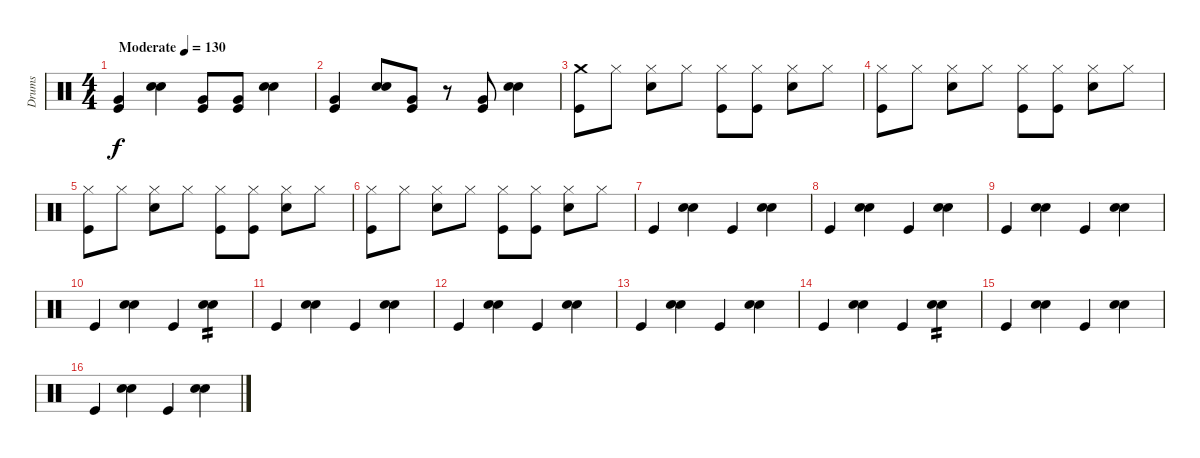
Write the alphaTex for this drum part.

\track ("Drums" "Drums") {instrument percussion}
\staff {score}
\articulation defaults
\ts (4 4)
\tempo (130 "Moderate")
\clef neutral
\ks c
("Kick (hit)" "Very Low Tom (hit)").4{dy f} ("Snare (hit) 2" "Hand Clap (hit)").4 ("Kick (hit)" "Very Low Tom (hit)").8 ("Kick (hit)" "Very Low Tom (hit)").8 ("Snare (hit) 2" "Hand Clap (hit)").4 |
("Kick (hit)" "Very Low Tom (hit)").4 ("Snare (hit) 2" "Hand Clap (hit)").8 ("Kick (hit)" "Very Low Tom (hit)").8 r.8 ("Kick (hit)" "Very Low Tom (hit)").8 ("Snare (hit) 2" "Hand Clap (hit)").4 |
("Crash medium (hit)" "Kick (hit)").8 "Hi-Hat (closed)".8 ("Hi-Hat (closed)" "Snare (hit) 2").8 "Hi-Hat (closed)".8 ("Hi-Hat (closed)" "Kick (hit)").8 ("Hi-Hat (closed)" "Kick (hit)").8 ("Hi-Hat (closed)" "Snare (hit) 2").8 "Hi-Hat (closed)".8 |
("Hi-Hat (closed)" "Kick (hit)").8 "Hi-Hat (closed)".8 ("Hi-Hat (closed)" "Snare (hit) 2").8 "Hi-Hat (closed)".8 ("Hi-Hat (closed)" "Kick (hit)").8 ("Hi-Hat (closed)" "Kick (hit)").8 ("Hi-Hat (closed)" "Snare (hit) 2").8 "Hi-Hat (closed)".8 |
("Hi-Hat (closed)" "Kick (hit)").8 "Hi-Hat (closed)".8 ("Hi-Hat (closed)" "Snare (hit) 2").8 "Hi-Hat (closed)".8 ("Hi-Hat (closed)" "Kick (hit)").8 ("Hi-Hat (closed)" "Kick (hit)").8 ("Hi-Hat (closed)" "Snare (hit) 2").8 "Hi-Hat (closed)".8 |
("Hi-Hat (closed)" "Kick (hit)").8 "Hi-Hat (closed)".8 ("Hi-Hat (closed)" "Snare (hit) 2").8 "Hi-Hat (closed)".8 ("Hi-Hat (closed)" "Kick (hit)").8 ("Hi-Hat (closed)" "Kick (hit)").8 ("Hi-Hat (closed)" "Snare (hit) 2").8 "Hi-Hat (closed)".8 |
"Kick (hit)".4 ("Snare (hit) 2" "Hand Clap (hit)").4 "Kick (hit)".4 ("Snare (hit) 2" "Hand Clap (hit)").4 |
"Kick (hit)".4 ("Snare (hit) 2" "Hand Clap (hit)").4 "Kick (hit)".4 ("Snare (hit) 2" "Hand Clap (hit)").4 |
"Kick (hit)".4 ("Snare (hit) 2" "Hand Clap (hit)").4 "Kick (hit)".4 ("Snare (hit) 2" "Hand Clap (hit)").4 |
"Kick (hit)".4 ("Snare (hit) 2" "Hand Clap (hit)").4 "Kick (hit)".4 ("Snare (hit) 2" "Hand Clap (hit)").4{tp 2} |
"Kick (hit)".4 ("Snare (hit) 2" "Hand Clap (hit)").4 "Kick (hit)".4 ("Snare (hit) 2" "Hand Clap (hit)").4 |
"Kick (hit)".4 ("Snare (hit) 2" "Hand Clap (hit)").4 "Kick (hit)".4 ("Snare (hit) 2" "Hand Clap (hit)").4 |
"Kick (hit)".4 ("Snare (hit) 2" "Hand Clap (hit)").4 "Kick (hit)".4 ("Snare (hit) 2" "Hand Clap (hit)").4 |
"Kick (hit)".4 ("Snare (hit) 2" "Hand Clap (hit)").4 "Kick (hit)".4 ("Snare (hit) 2" "Hand Clap (hit)").4{tp 2} |
"Kick (hit)".4 ("Snare (hit) 2" "Hand Clap (hit)").4 "Kick (hit)".4 ("Snare (hit) 2" "Hand Clap (hit)").4 |
"Kick (hit)".4 ("Snare (hit) 2" "Hand Clap (hit)").4 "Kick (hit)".4 ("Snare (hit) 2" "Hand Clap (hit)").4
